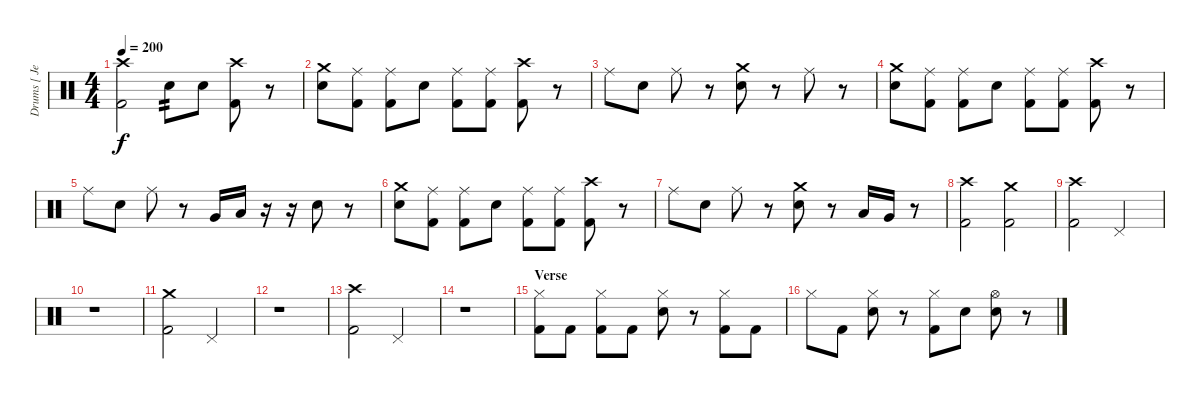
\track ("Drums [ Jesse Ingelevics ]" "Drums [ Je") {instrument percussion}
\staff {score}
\articulation defaults
\ts (4 4)
\tempo 200
\clef neutral
\ks c
("Crash high (hit)" "Kick (hit) 2").2{dy f} "Electric Snare (hit)".8{tp 2} "Electric Snare (hit)".8 ("Crash high (hit)" "Kick (hit) 2").8 r.8 |
("Crash medium (hit)" "Electric Snare (hit)").8 ("Ride (middle)" "Kick (hit) 2").8 ("Ride (middle)" "Kick (hit) 2").8 "Electric Snare (hit)".8 ("Ride (middle)" "Kick (hit) 2").8 ("Ride (middle)" "Kick (hit) 2").8 ("Crash high (hit)" "Kick (hit) 2").8 r.8 |
"Ride (middle)".8 "Electric Snare (hit)".8 "Ride (middle)".8 r.8 ("Crash medium (hit)" "Electric Snare (hit)").8 r.8 "Ride (middle)".8 r.8 |
("Crash medium (hit)" "Electric Snare (hit)").8 ("Ride (middle)" "Kick (hit) 2").8 ("Ride (middle)" "Kick (hit) 2").8 "Electric Snare (hit)".8 ("Ride (middle)" "Kick (hit) 2").8 ("Ride (middle)" "Kick (hit) 2").8 ("Crash high (hit)" "Kick (hit) 2").8 r.8 |
"Ride (middle)".8 "Electric Snare (hit)".8 "Ride (middle)".8 r.8 "Very Low Tom (hit)".16 "Low Floor Tom (hit)".16 r.16 r.16 "Electric Snare (hit)".8 r.8 |
("Crash medium (hit)" "Electric Snare (hit)").8 ("Ride (middle)" "Kick (hit) 2").8 ("Ride (middle)" "Kick (hit) 2").8 "Electric Snare (hit)".8 ("Ride (middle)" "Kick (hit) 2").8 ("Ride (middle)" "Kick (hit) 2").8 ("Crash high (hit)" "Kick (hit) 2").8 r.8 |
"Ride (middle)".8 "Electric Snare (hit)".8 "Ride (middle)".8 r.8 ("Crash medium (hit)" "Electric Snare (hit)").8 r.8 "Low Floor Tom (hit)".16 "Very Low Tom (hit)".16 r.8 |
("Crash high (hit)" "Kick (hit) 2").2 ("Crash medium (hit)" "Kick (hit) 2").2 |
("Crash high (hit)" "Kick (hit) 2").2 "Pedal Hi-Hat (hit)".2 |
r.1 |
("Crash medium (hit)" "Kick (hit) 2").2 "Pedal Hi-Hat (hit)".2 |
r.1 |
("Crash high (hit)" "Kick (hit) 2").2 "Pedal Hi-Hat (hit)".2 |
r.1 |
\section ("" "Verse")
("Hi-Hat (closed)" "Kick (hit) 2").8 "Kick (hit) 2".8 ("Hi-Hat (closed)" "Kick (hit) 2").8 "Kick (hit) 2".8 ("Hi-Hat (closed)" "Electric Snare (hit)").8 r.8 ("Hi-Hat (closed)" "Kick (hit) 2").8 "Kick (hit) 2".8 |
"Hi-Hat (closed)".8 "Kick (hit) 2".8 ("Hi-Hat (closed)" "Electric Snare (hit)").8 r.8 ("Hi-Hat (closed)" "Kick (hit) 2").8 "Electric Snare (hit)".8 ("Hi-Hat (open)" "Electric Snare (hit)").8 r.8
